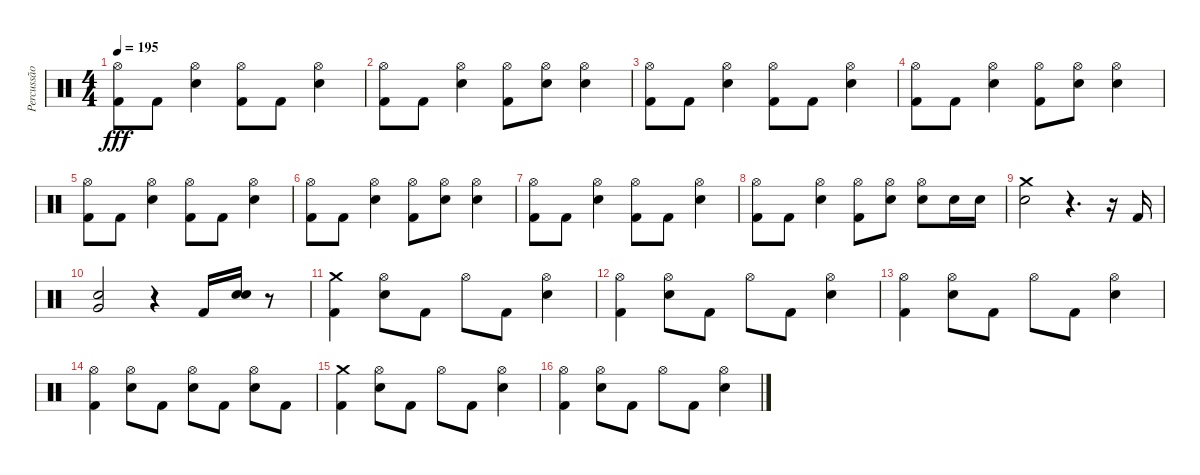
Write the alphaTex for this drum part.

\track ("Percussão" "Percussão") {instrument percussion}
\staff {score}
\articulation defaults
\ts (4 4)
\tempo 195
\clef neutral
\ks c
("Hi-Hat (open)" "Kick (hit) 2").8{dy fff} "Kick (hit) 2".8 ("Hi-Hat (open)" "Electric Snare (hit)").4 ("Hi-Hat (open)" "Kick (hit) 2").8 "Kick (hit) 2".8 ("Hi-Hat (open)" "Electric Snare (hit)").4 |
("Hi-Hat (open)" "Kick (hit) 2").8 "Kick (hit) 2".8 ("Hi-Hat (open)" "Electric Snare (hit)").4 ("Hi-Hat (open)" "Kick (hit) 2").8 ("Hi-Hat (open)" "Electric Snare (hit)").8 ("Hi-Hat (open)" "Electric Snare (hit)").4 |
("Hi-Hat (open)" "Kick (hit) 2").8 "Kick (hit) 2".8 ("Hi-Hat (open)" "Electric Snare (hit)").4 ("Hi-Hat (open)" "Kick (hit) 2").8 "Kick (hit) 2".8 ("Hi-Hat (open)" "Electric Snare (hit)").4 |
("Hi-Hat (open)" "Kick (hit) 2").8 "Kick (hit) 2".8 ("Hi-Hat (open)" "Electric Snare (hit)").4 ("Hi-Hat (open)" "Kick (hit) 2").8 ("Hi-Hat (open)" "Electric Snare (hit)").8 ("Hi-Hat (open)" "Electric Snare (hit)").4 |
("Hi-Hat (open)" "Kick (hit) 2").8 "Kick (hit) 2".8 ("Hi-Hat (open)" "Electric Snare (hit)").4 ("Hi-Hat (open)" "Kick (hit) 2").8 "Kick (hit) 2".8 ("Hi-Hat (open)" "Electric Snare (hit)").4 |
("Hi-Hat (open)" "Kick (hit) 2").8 "Kick (hit) 2".8 ("Hi-Hat (open)" "Electric Snare (hit)").4 ("Hi-Hat (open)" "Kick (hit) 2").8 ("Hi-Hat (open)" "Electric Snare (hit)").8 ("Hi-Hat (open)" "Electric Snare (hit)").4 |
("Hi-Hat (open)" "Kick (hit) 2").8 "Kick (hit) 2".8 ("Hi-Hat (open)" "Electric Snare (hit)").4 ("Hi-Hat (open)" "Kick (hit) 2").8 "Kick (hit) 2".8 ("Hi-Hat (open)" "Electric Snare (hit)").4 |
("Hi-Hat (open)" "Kick (hit) 2").8 "Kick (hit) 2".8 ("Hi-Hat (open)" "Electric Snare (hit)").4 ("Hi-Hat (open)" "Kick (hit) 2").8 ("Hi-Hat (open)" "Electric Snare (hit)").8 ("Hi-Hat (open)" "Electric Snare (hit)").8 "Electric Snare (hit)".16 "Electric Snare (hit)".16 |
("Crash medium (hit)" "Electric Snare (hit)").2 r.4{d} r.16 "Kick (hit) 2".16 |
("Very Low Tom (hit)" "Electric Snare (hit)").2{bd 240} r.4 "Kick (hit) 2".16 ("Electric Snare (hit)" "Electric Snare (hit)").16{bd 240} r.8 |
("Crash medium (hit)" "Kick (hit) 2").4 ("Hi-Hat (open)" "Electric Snare (hit)").8 "Kick (hit) 2".8 "Hi-Hat (open)".8 "Kick (hit) 2".8 ("Hi-Hat (open)" "Electric Snare (hit)").4 |
("Hi-Hat (open)" "Kick (hit) 2").4 ("Hi-Hat (open)" "Electric Snare (hit)").8 "Kick (hit) 2".8 "Hi-Hat (open)".8 "Kick (hit) 2".8 ("Hi-Hat (open)" "Electric Snare (hit)").4 |
("Hi-Hat (open)" "Kick (hit) 2").4 ("Hi-Hat (open)" "Electric Snare (hit)").8 "Kick (hit) 2".8 "Hi-Hat (open)".8 "Kick (hit) 2".8 ("Hi-Hat (open)" "Electric Snare (hit)").4 |
("Hi-Hat (open)" "Kick (hit) 2").4 ("Hi-Hat (open)" "Electric Snare (hit)").8 "Kick (hit) 2".8 ("Hi-Hat (open)" "Electric Snare (hit)").8 "Kick (hit) 2".8 ("Hi-Hat (open)" "Electric Snare (hit)").8 "Kick (hit) 2".8 |
("Crash medium (hit)" "Kick (hit) 2").4 ("Hi-Hat (open)" "Electric Snare (hit)").8 "Kick (hit) 2".8 "Hi-Hat (open)".8 "Kick (hit) 2".8 ("Hi-Hat (open)" "Electric Snare (hit)").4 |
("Hi-Hat (open)" "Kick (hit) 2").4 ("Hi-Hat (open)" "Electric Snare (hit)").8 "Kick (hit) 2".8 "Hi-Hat (open)".8 "Kick (hit) 2".8 ("Hi-Hat (open)" "Electric Snare (hit)").4
